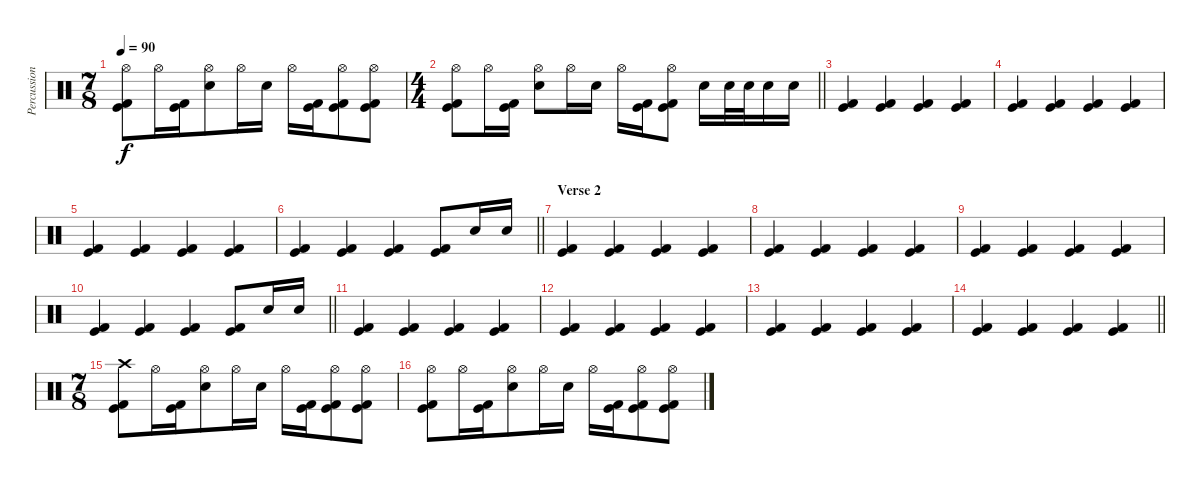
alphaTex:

\track ("Percussion" "Percussion") {instrument percussion}
\staff {score}
\articulation defaults
\ts (7 8)
\tempo 90
\clef neutral
\ks c
("Hi-Hat (open)" "Kick (hit)" "Kick (hit) 2").8{dy f} "Hi-Hat (open)".16 ("Kick (hit)" "Kick (hit) 2").16 ("Hi-Hat (open)" "Electric Snare (hit)").8 "Hi-Hat (open)".16 "Electric Snare (hit)".16 "Hi-Hat (open)".16 ("Kick (hit)" "Kick (hit) 2").16 ("Hi-Hat (open)" "Kick (hit)" "Kick (hit) 2").8 ("Hi-Hat (open)" "Kick (hit)" "Kick (hit) 2").8 |
\ts (4 4)
\barLineRight lightlight
("Hi-Hat (open)" "Kick (hit)" "Kick (hit) 2").8 "Hi-Hat (open)".16 ("Kick (hit)" "Kick (hit) 2").16 ("Hi-Hat (open)" "Electric Snare (hit)").8 "Hi-Hat (open)".16 "Electric Snare (hit)".16 "Hi-Hat (open)".16 ("Kick (hit)" "Kick (hit) 2").16 ("Hi-Hat (open)" "Kick (hit)" "Kick (hit) 2").8 "Electric Snare (hit)".16 "Electric Snare (hit)".32 "Electric Snare (hit)".32 "Electric Snare (hit)".16 "Electric Snare (hit)".16 |
\section ("" "")
("Kick (hit)" "Kick (hit) 2").4 ("Kick (hit)" "Kick (hit) 2").4 ("Kick (hit)" "Kick (hit) 2").4 ("Kick (hit)" "Kick (hit) 2").4 |
("Kick (hit)" "Kick (hit) 2").4 ("Kick (hit)" "Kick (hit) 2").4 ("Kick (hit)" "Kick (hit) 2").4 ("Kick (hit)" "Kick (hit) 2").4 |
("Kick (hit)" "Kick (hit) 2").4 ("Kick (hit)" "Kick (hit) 2").4 ("Kick (hit)" "Kick (hit) 2").4 ("Kick (hit)" "Kick (hit) 2").4 |
\barLineRight lightlight
("Kick (hit)" "Kick (hit) 2").4 ("Kick (hit)" "Kick (hit) 2").4 ("Kick (hit)" "Kick (hit) 2").4 ("Kick (hit)" "Kick (hit) 2").8 "Electric Snare (hit)".16 "Electric Snare (hit)".16 |
\section ("" "Verse 2")
("Kick (hit)" "Kick (hit) 2").4 ("Kick (hit)" "Kick (hit) 2").4 ("Kick (hit)" "Kick (hit) 2").4 ("Kick (hit)" "Kick (hit) 2").4 |
("Kick (hit)" "Kick (hit) 2").4 ("Kick (hit)" "Kick (hit) 2").4 ("Kick (hit)" "Kick (hit) 2").4 ("Kick (hit)" "Kick (hit) 2").4 |
("Kick (hit)" "Kick (hit) 2").4 ("Kick (hit)" "Kick (hit) 2").4 ("Kick (hit)" "Kick (hit) 2").4 ("Kick (hit)" "Kick (hit) 2").4 |
\barLineRight lightlight
("Kick (hit)" "Kick (hit) 2").4 ("Kick (hit)" "Kick (hit) 2").4 ("Kick (hit)" "Kick (hit) 2").4 ("Kick (hit)" "Kick (hit) 2").8 "Electric Snare (hit)".16 "Electric Snare (hit)".16 |
("Kick (hit)" "Kick (hit) 2").4 ("Kick (hit)" "Kick (hit) 2").4 ("Kick (hit)" "Kick (hit) 2").4 ("Kick (hit)" "Kick (hit) 2").4 |
("Kick (hit)" "Kick (hit) 2").4 ("Kick (hit)" "Kick (hit) 2").4 ("Kick (hit)" "Kick (hit) 2").4 ("Kick (hit)" "Kick (hit) 2").4 |
("Kick (hit)" "Kick (hit) 2").4 ("Kick (hit)" "Kick (hit) 2").4 ("Kick (hit)" "Kick (hit) 2").4 ("Kick (hit)" "Kick (hit) 2").4 |
\barLineRight lightlight
("Kick (hit)" "Kick (hit) 2").4 ("Kick (hit)" "Kick (hit) 2").4 ("Kick (hit)" "Kick (hit) 2").4 ("Kick (hit)" "Kick (hit) 2").4 |
\ts (7 8)
\section ("" "")
("Crash high (hit)" "Kick (hit)" "Kick (hit) 2").8 "Hi-Hat (open)".16 ("Kick (hit)" "Kick (hit) 2").16 ("Hi-Hat (open)" "Electric Snare (hit)").8 "Hi-Hat (open)".16 "Electric Snare (hit)".16 "Hi-Hat (open)".16 ("Kick (hit)" "Kick (hit) 2").16 ("Hi-Hat (open)" "Kick (hit)" "Kick (hit) 2").8 ("Hi-Hat (open)" "Kick (hit)" "Kick (hit) 2").8 |
("Hi-Hat (open)" "Kick (hit)" "Kick (hit) 2").8 "Hi-Hat (open)".16 ("Kick (hit)" "Kick (hit) 2").16 ("Hi-Hat (open)" "Electric Snare (hit)").8 "Hi-Hat (open)".16 "Electric Snare (hit)".16 "Hi-Hat (open)".16 ("Kick (hit)" "Kick (hit) 2").16 ("Hi-Hat (open)" "Kick (hit)" "Kick (hit) 2").8 ("Hi-Hat (open)" "Kick (hit)" "Kick (hit) 2").8
